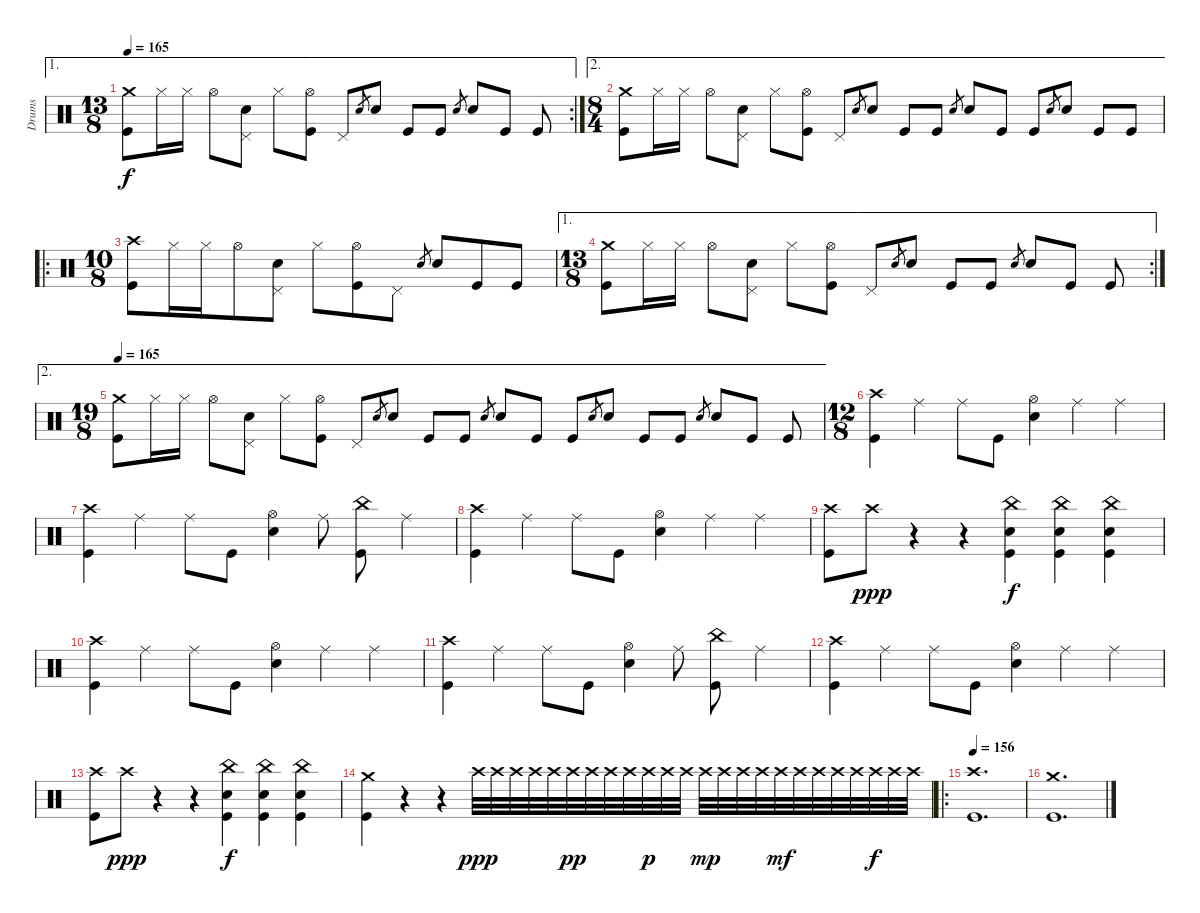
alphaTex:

\track ("Drums" "Drums") {instrument percussion}
\staff {score}
\articulation defaults
\ae 1
\rc 2
\ts (13 8)
\tempo 165
\clef neutral
\ks c
("Crash medium (hit)" "Kick (hit)").8{dy f} "Hi-Hat (closed)".16 "Hi-Hat (closed)".16 "Hi-Hat (open)".8 ("Pedal Hi-Hat (hit)" "Electric Snare (hit)").8 "Hi-Hat (closed)".8 ("Hi-Hat (open)" "Kick (hit)").8 "Pedal Hi-Hat (hit)".8 "Electric Snare (hit)".8{gr} "Electric Snare (hit)".8 "Kick (hit)".8 "Kick (hit)".8 "Electric Snare (hit)".8{gr} "Electric Snare (hit)".8 "Kick (hit)".8 "Kick (hit)".8 |
\ae 2
\ts (8 4)
("Crash medium (hit)" "Kick (hit)").8 "Hi-Hat (closed)".16 "Hi-Hat (closed)".16 "Hi-Hat (open)".8 ("Pedal Hi-Hat (hit)" "Electric Snare (hit)").8 "Hi-Hat (closed)".8 ("Hi-Hat (open)" "Kick (hit)").8 "Pedal Hi-Hat (hit)".8 "Electric Snare (hit)".8{gr} "Electric Snare (hit)".8 "Kick (hit)".8 "Kick (hit)".8 "Electric Snare (hit)".8{gr} "Electric Snare (hit)".8 "Kick (hit)".8 "Kick (hit)".8 "Electric Snare (hit)".8{gr} "Electric Snare (hit)".8 "Kick (hit)".8 "Kick (hit)".8 |
\ro
\ts (10 8)
("Crash high (hit)" "Kick (hit)").8 "Hi-Hat (closed)".16 "Hi-Hat (closed)".16 "Hi-Hat (open)".8 ("Pedal Hi-Hat (hit)" "Electric Snare (hit)").8 "Hi-Hat (closed)".8 ("Hi-Hat (open)" "Kick (hit)").8 "Pedal Hi-Hat (hit)".8 "Electric Snare (hit)".8{gr} "Electric Snare (hit)".8 "Kick (hit)".8 "Kick (hit)".8 |
\ae 1
\rc 2
\ts (13 8)
("Crash medium (hit)" "Kick (hit)").8 "Hi-Hat (closed)".16 "Hi-Hat (closed)".16 "Hi-Hat (open)".8 ("Pedal Hi-Hat (hit)" "Electric Snare (hit)").8 "Hi-Hat (closed)".8 ("Hi-Hat (open)" "Kick (hit)").8 "Pedal Hi-Hat (hit)".8 "Electric Snare (hit)".8{gr} "Electric Snare (hit)".8 "Kick (hit)".8 "Kick (hit)".8 "Electric Snare (hit)".8{gr} "Electric Snare (hit)".8 "Kick (hit)".8 "Kick (hit)".8 |
\ae 2
\ts (19 8)
\tempo 165
("Crash medium (hit)" "Kick (hit)").8 "Hi-Hat (closed)".16 "Hi-Hat (closed)".16 "Hi-Hat (open)".8 ("Pedal Hi-Hat (hit)" "Electric Snare (hit)").8 "Hi-Hat (closed)".8 ("Hi-Hat (open)" "Kick (hit)").8 "Pedal Hi-Hat (hit)".8 "Electric Snare (hit)".8{gr} "Electric Snare (hit)".8 "Kick (hit)".8 "Kick (hit)".8 "Electric Snare (hit)".8{gr} "Electric Snare (hit)".8 "Kick (hit)".8 "Kick (hit)".8 "Electric Snare (hit)".8{gr} "Electric Snare (hit)".8 "Kick (hit)".8 "Kick (hit)".8 "Electric Snare (hit)".8{gr} "Electric Snare (hit)".8 "Kick (hit)".8 "Kick (hit)".8 |
\ts (12 8)
("Crash high (hit)" "Kick (hit)").4 "Ride (middle)".4 "Ride (middle)".8 "Kick (hit)".8 ("Hi-Hat (open)" "Electric Snare (hit)").4 "Ride (middle)".4 "Ride (middle)".4 |
("Crash high (hit)" "Kick (hit)").4 "Ride (middle)".4 "Ride (middle)".8 "Kick (hit)".8 ("Hi-Hat (open)" "Electric Snare (hit)").4 "Ride (middle)".8 ("China (hit)" "Kick (hit)").8 "Ride (middle)".4 |
("Crash high (hit)" "Kick (hit)").4 "Ride (middle)".4 "Ride (middle)".8 "Kick (hit)".8 ("Hi-Hat (open)" "Electric Snare (hit)").4 "Ride (middle)".4 "Ride (middle)".4 |
("Crash high (hit)" "Kick (hit)").8 "Crash high (hit)".8{dy ppp} r.4 r.4 ("China (hit)" "Electric Snare (hit)" "Kick (hit)").4{dy f} ("China (hit)" "Electric Snare (hit)" "Kick (hit)").4 ("China (hit)" "Electric Snare (hit)" "Kick (hit)").4 |
("Crash high (hit)" "Kick (hit)").4 "Ride (middle)".4 "Ride (middle)".8 "Kick (hit)".8 ("Hi-Hat (open)" "Electric Snare (hit)").4 "Ride (middle)".4 "Ride (middle)".4 |
("Crash high (hit)" "Kick (hit)").4 "Ride (middle)".4 "Ride (middle)".8 "Kick (hit)".8 ("Hi-Hat (open)" "Electric Snare (hit)").4 "Ride (middle)".8 ("China (hit)" "Kick (hit)").8 "Ride (middle)".4 |
("Crash high (hit)" "Kick (hit)").4 "Ride (middle)".4 "Ride (middle)".8 "Kick (hit)".8 ("Hi-Hat (open)" "Electric Snare (hit)").4 "Ride (middle)".4 "Ride (middle)".4 |
("Crash high (hit)" "Kick (hit)").8 "Crash high (hit)".8{dy ppp} r.4 r.4 ("China (hit)" "Electric Snare (hit)" "Kick (hit)").4{dy f} ("China (hit)" "Electric Snare (hit)" "Kick (hit)").4 ("China (hit)" "Electric Snare (hit)" "Kick (hit)").4 |
("Crash medium (hit)" "Kick (hit)").4 r.4 r.4 "Crash high (hit)".32{dy ppp} "Crash high (hit)".32 "Crash high (hit)".32 "Crash high (hit)".32 "Crash high (hit)".32 "Crash high (hit)".32{dy pp} "Crash high (hit)".32 "Crash high (hit)".32 "Crash high (hit)".32 "Crash high (hit)".32{dy p} "Crash high (hit)".32 "Crash high (hit)".32 "Crash high (hit)".32{dy mp} "Crash high (hit)".32 "Crash high (hit)".32 "Crash high (hit)".32 "Crash high (hit)".32{dy mf} "Crash high (hit)".32 "Crash high (hit)".32 "Crash high (hit)".32 "Crash high (hit)".32 "Crash high (hit)".32{dy f} "Crash high (hit)".32 "Crash high (hit)".32 |
\ro
\tempo 156
("Crash high (hit)" "Kick (hit)").1{d} |
("Crash medium (hit)" "Kick (hit)").1{d}
